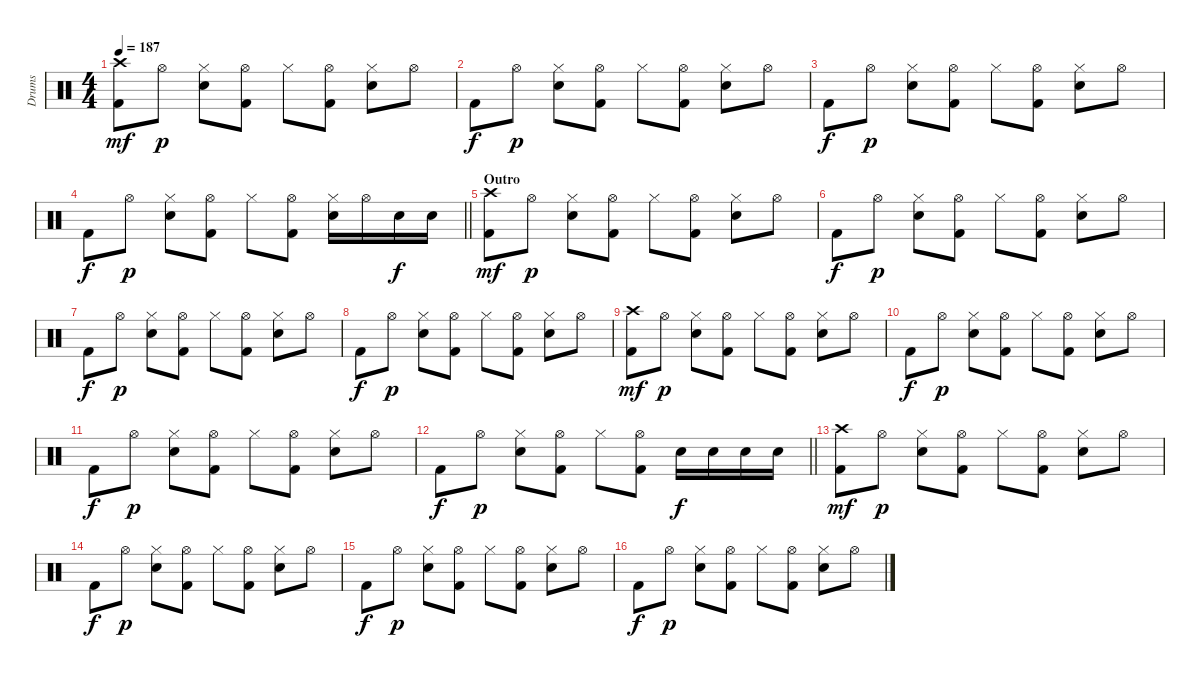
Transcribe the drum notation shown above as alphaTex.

\track ("Drums" "Drums") {instrument percussion}
\staff {score}
\articulation defaults
\ts (4 4)
\tempo 187
\clef neutral
\ks c
("Crash high (hit)" "Kick (hit) 2").8{dy mf} "Hi-Hat (open)".8{dy p} ("Hi-Hat (closed)" "Electric Snare (hit)").8 ("Hi-Hat (open)" "Kick (hit) 2").8 "Hi-Hat (closed)".8 ("Hi-Hat (open)" "Kick (hit) 2").8 ("Hi-Hat (closed)" "Electric Snare (hit)").8 "Hi-Hat (open)".8 |
"Kick (hit) 2".8{dy f} "Hi-Hat (open)".8{dy p} ("Hi-Hat (closed)" "Electric Snare (hit)").8 ("Hi-Hat (open)" "Kick (hit) 2").8 "Hi-Hat (closed)".8 ("Hi-Hat (open)" "Kick (hit) 2").8 ("Hi-Hat (closed)" "Electric Snare (hit)").8 "Hi-Hat (open)".8 |
"Kick (hit) 2".8{dy f} "Hi-Hat (open)".8{dy p} ("Hi-Hat (closed)" "Electric Snare (hit)").8 ("Hi-Hat (open)" "Kick (hit) 2").8 "Hi-Hat (closed)".8 ("Hi-Hat (open)" "Kick (hit) 2").8 ("Hi-Hat (closed)" "Electric Snare (hit)").8 "Hi-Hat (open)".8 |
\barLineRight lightlight "Kick (hit) 2".8{dy f} "Hi-Hat (open)".8{dy p}
("Hi-Hat (closed)" "Electric Snare (hit)").8 ("Hi-Hat (open)" "Kick (hit) 2").8 "Hi-Hat (closed)".8 ("Hi-Hat (open)" "Kick (hit) 2").8 ("Hi-Hat (closed)" "Electric Snare (hit)").16 "Hi-Hat (open)".16 "Electric Snare (hit)".16{dy f} "Electric Snare (hit)".16 |
\section ("" "Outro")
("Crash high (hit)" "Kick (hit) 2").8{dy mf} "Hi-Hat (open)".8{dy p} ("Hi-Hat (closed)" "Electric Snare (hit)").8 ("Hi-Hat (open)" "Kick (hit) 2").8 "Hi-Hat (closed)".8 ("Hi-Hat (open)" "Kick (hit) 2").8 ("Hi-Hat (closed)" "Electric Snare (hit)").8 "Hi-Hat (open)".8 |
"Kick (hit) 2".8{dy f} "Hi-Hat (open)".8{dy p} ("Hi-Hat (closed)" "Electric Snare (hit)").8 ("Hi-Hat (open)" "Kick (hit) 2").8 "Hi-Hat (closed)".8 ("Hi-Hat (open)" "Kick (hit) 2").8 ("Hi-Hat (closed)" "Electric Snare (hit)").8 "Hi-Hat (open)".8 |
"Kick (hit) 2".8{dy f} "Hi-Hat (open)".8{dy p} ("Hi-Hat (closed)" "Electric Snare (hit)").8 ("Hi-Hat (open)" "Kick (hit) 2").8 "Hi-Hat (closed)".8 ("Hi-Hat (open)" "Kick (hit) 2").8 ("Hi-Hat (closed)" "Electric Snare (hit)").8 "Hi-Hat (open)".8 |
"Kick (hit) 2".8{dy f} "Hi-Hat (open)".8{dy p} ("Hi-Hat (closed)" "Electric Snare (hit)").8 ("Hi-Hat (open)" "Kick (hit) 2").8 "Hi-Hat (closed)".8 ("Hi-Hat (open)" "Kick (hit) 2").8 ("Hi-Hat (closed)" "Electric Snare (hit)").8 "Hi-Hat (open)".8 |
("Crash high (hit)" "Kick (hit) 2").8{dy mf} "Hi-Hat (open)".8{dy p} ("Hi-Hat (closed)" "Electric Snare (hit)").8 ("Hi-Hat (open)" "Kick (hit) 2").8 "Hi-Hat (closed)".8 ("Hi-Hat (open)" "Kick (hit) 2").8 ("Hi-Hat (closed)" "Electric Snare (hit)").8 "Hi-Hat (open)".8 |
"Kick (hit) 2".8{dy f} "Hi-Hat (open)".8{dy p} ("Hi-Hat (closed)" "Electric Snare (hit)").8 ("Hi-Hat (open)" "Kick (hit) 2").8 "Hi-Hat (closed)".8 ("Hi-Hat (open)" "Kick (hit) 2").8 ("Hi-Hat (closed)" "Electric Snare (hit)").8 "Hi-Hat (open)".8 |
"Kick (hit) 2".8{dy f} "Hi-Hat (open)".8{dy p} ("Hi-Hat (closed)" "Electric Snare (hit)").8 ("Hi-Hat (open)" "Kick (hit) 2").8 "Hi-Hat (closed)".8 ("Hi-Hat (open)" "Kick (hit) 2").8 ("Hi-Hat (closed)" "Electric Snare (hit)").8 "Hi-Hat (open)".8 |
\barLineRight lightlight "Kick (hit) 2".8{dy f} "Hi-Hat (open)".8{dy p}
("Hi-Hat (closed)" "Electric Snare (hit)").8 ("Hi-Hat (open)" "Kick (hit) 2").8 "Hi-Hat (closed)".8 ("Hi-Hat (open)" "Kick (hit) 2").8 "Electric Snare (hit)".16{dy f} "Electric Snare (hit)".16 "Electric Snare (hit)".16 "Electric Snare (hit)".16 |
("Crash high (hit)" "Kick (hit) 2").8{dy mf} "Hi-Hat (open)".8{dy p} ("Hi-Hat (closed)" "Electric Snare (hit)").8 ("Hi-Hat (open)" "Kick (hit) 2").8 "Hi-Hat (closed)".8 ("Hi-Hat (open)" "Kick (hit) 2").8 ("Hi-Hat (closed)" "Electric Snare (hit)").8 "Hi-Hat (open)".8 |
"Kick (hit) 2".8{dy f} "Hi-Hat (open)".8{dy p} ("Hi-Hat (closed)" "Electric Snare (hit)").8 ("Hi-Hat (open)" "Kick (hit) 2").8 "Hi-Hat (closed)".8 ("Hi-Hat (open)" "Kick (hit) 2").8 ("Hi-Hat (closed)" "Electric Snare (hit)").8 "Hi-Hat (open)".8 |
"Kick (hit) 2".8{dy f} "Hi-Hat (open)".8{dy p} ("Hi-Hat (closed)" "Electric Snare (hit)").8 ("Hi-Hat (open)" "Kick (hit) 2").8 "Hi-Hat (closed)".8 ("Hi-Hat (open)" "Kick (hit) 2").8 ("Hi-Hat (closed)" "Electric Snare (hit)").8 "Hi-Hat (open)".8 |
"Kick (hit) 2".8{dy f} "Hi-Hat (open)".8{dy p} ("Hi-Hat (closed)" "Electric Snare (hit)").8 ("Hi-Hat (open)" "Kick (hit) 2").8 "Hi-Hat (closed)".8 ("Hi-Hat (open)" "Kick (hit) 2").8 ("Hi-Hat (closed)" "Electric Snare (hit)").8 "Hi-Hat (open)".8
